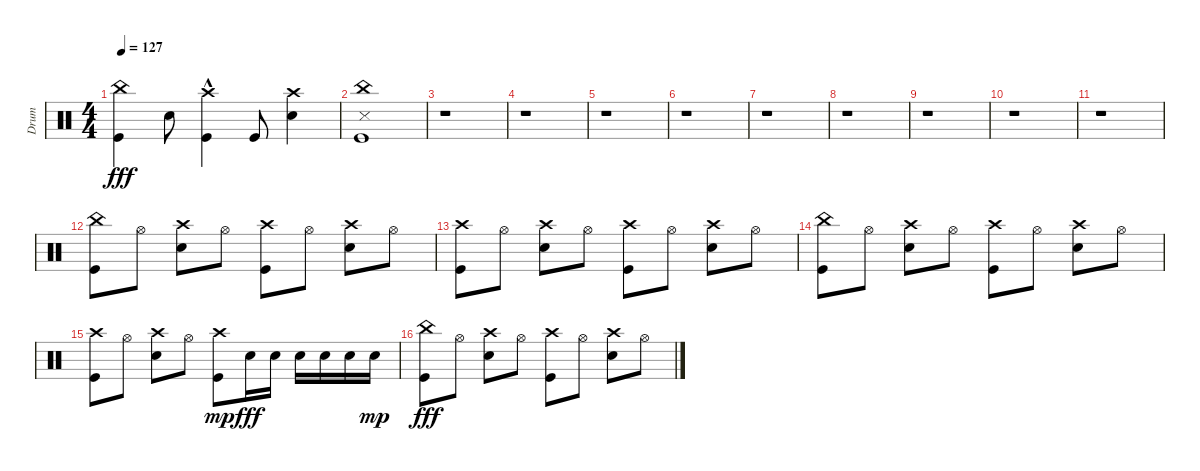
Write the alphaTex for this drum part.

\track ("Drum" "Drum") {instrument percussion}
\staff {score}
\articulation defaults
\ts (4 4)
\tempo 127
\clef neutral
\ks c
("Kick (hit)" "China (hit)").4{dy fff} "Electric Snare (hit)".8 ("Crash high (hit)"{hac} "Kick (hit)").4 "Kick (hit)".8 ("Crash high (hit)" "Electric Snare (hit)").4 |
("China (hit)" "Snare (side stick) 3" "Kick (hit)").1 |
r.1 |
r.1 |
r.1 |
r.1 |
r.1 |
r.1 |
r.1 |
r.1 |
r.1 |
("Kick (hit)" "China (hit)").8 "Hi-Hat (open)".8 ("Crash high (hit)" "Electric Snare (hit)").8 "Hi-Hat (open)".8 ("Kick (hit)" "Crash high (hit)").8 "Hi-Hat (open)".8 ("Crash high (hit)" "Electric Snare (hit)").8 "Hi-Hat (open)".8 |
("Kick (hit)" "Crash high (hit)").8 "Hi-Hat (open)".8 ("Crash high (hit)" "Electric Snare (hit)").8 "Hi-Hat (open)".8 ("Kick (hit)" "Crash high (hit)").8 "Hi-Hat (open)".8 ("Crash high (hit)" "Electric Snare (hit)").8 "Hi-Hat (open)".8 |
("Kick (hit)" "China (hit)").8 "Hi-Hat (open)".8 ("Crash high (hit)" "Electric Snare (hit)").8 "Hi-Hat (open)".8 ("Kick (hit)" "Crash high (hit)").8 "Hi-Hat (open)".8 ("Crash high (hit)" "Electric Snare (hit)").8 "Hi-Hat (open)".8 |
("Kick (hit)" "Crash high (hit)").8 "Hi-Hat (open)".8 ("Crash high (hit)" "Electric Snare (hit)").8 "Hi-Hat (open)".8 ("Kick (hit)" "Crash high (hit)").8{dy mp} "Electric Snare (hit)".16{dy fff} "Electric Snare (hit)".16 "Electric Snare (hit)".16 "Electric Snare (hit)".16 "Electric Snare (hit)".16 "Electric Snare (hit)".16{dy mp} |
("Kick (hit)" "China (hit)").8{dy fff} "Hi-Hat (open)".8 ("Crash high (hit)" "Electric Snare (hit)").8 "Hi-Hat (open)".8 ("Kick (hit)" "Crash high (hit)").8 "Hi-Hat (open)".8 ("Crash high (hit)" "Electric Snare (hit)").8 "Hi-Hat (open)".8
